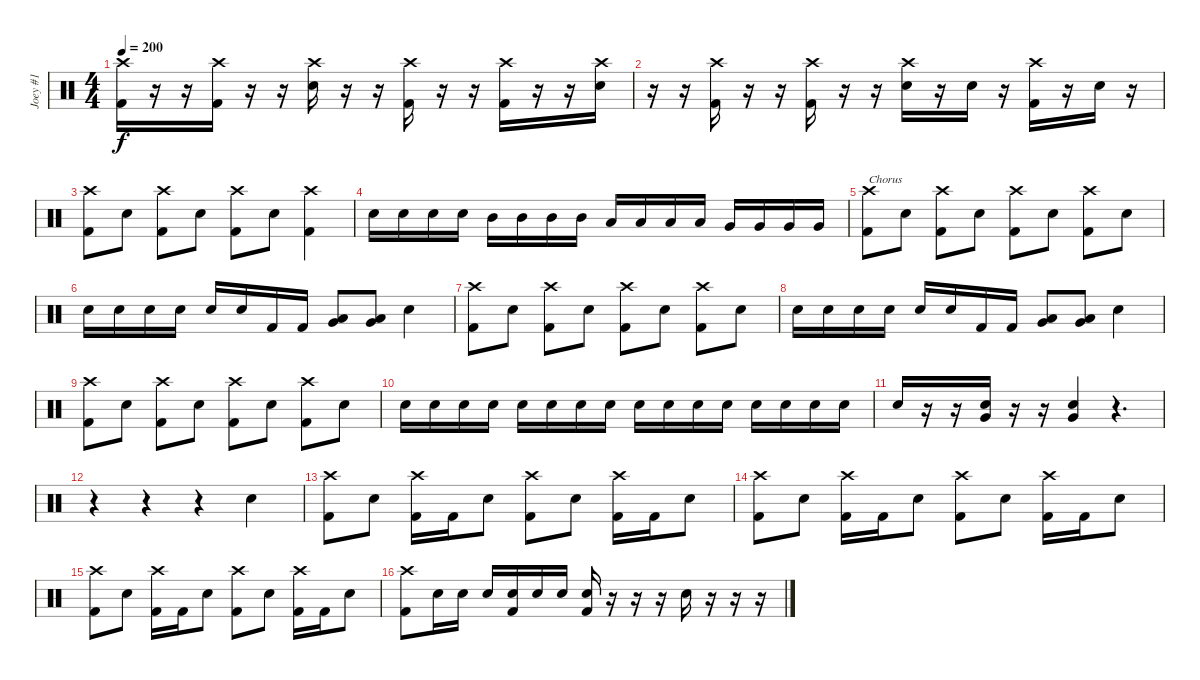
\track ("Joey #1" "Joey #1") {instrument percussion}
\staff {score}
\articulation defaults
\ts (4 4)
\tempo 200
\clef neutral
\ks c
("Crash high (hit)" "Kick (hit) 2").16{dy f} r.16 r.16 ("Crash high (hit)" "Kick (hit) 2").16 r.16 r.16 ("Crash high (hit)" "Electric Snare (hit)").16 r.16 r.16 ("Crash high (hit)" "Kick (hit) 2").16 r.16 r.16 ("Crash high (hit)" "Kick (hit) 2").16 r.16 r.16 ("Crash high (hit)" "Electric Snare (hit)").16 |
r.16 r.16 ("Crash high (hit)" "Kick (hit) 2").16 r.16 r.16 ("Crash high (hit)" "Kick (hit) 2").16 r.16 r.16 ("Crash high (hit)" "Electric Snare (hit)").16 r.16 "Electric Snare (hit)".16 r.16 ("Crash high (hit)" "Kick (hit) 2").16 r.16 "Electric Snare (hit)".16 r.16 |
("Crash high (hit)" "Kick (hit) 2").8 "Electric Snare (hit)".8 ("Crash high (hit)" "Kick (hit) 2").8 "Electric Snare (hit)".8 ("Crash high (hit)" "Kick (hit) 2").8 "Electric Snare (hit)".8 ("Crash high (hit)" "Kick (hit) 2").4 |
"Electric Snare (hit)".16 "Electric Snare (hit)".16 "Electric Snare (hit)".16 "Electric Snare (hit)".16 "Mid Tom (hit)".16 "Mid Tom (hit)".16 "Mid Tom (hit)".16 "Mid Tom (hit)".16 "Low Tom (hit)".16 "Low Tom (hit)".16 "Low Tom (hit)".16 "Low Tom (hit)".16 "Very Low Tom (hit)".16 "Very Low Tom (hit)".16 "Very Low Tom (hit)".16 "Very Low Tom (hit)".16 |
("Crash high (hit)" "Kick (hit) 2").8{txt "Chorus"} "Electric Snare (hit)".8 ("Crash high (hit)" "Kick (hit) 2").8 "Electric Snare (hit)".8 ("Crash high (hit)" "Kick (hit) 2").8 "Electric Snare (hit)".8 ("Crash high (hit)" "Kick (hit) 2").8 "Electric Snare (hit)".8 |
"Electric Snare (hit)".16 "Electric Snare (hit)".16 "Electric Snare (hit)".16 "Electric Snare (hit)".16 "Electric Snare (hit)".16 "Electric Snare (hit)".16 "Kick (hit) 2".16 "Kick (hit) 2".16 ("Low Tom (hit)" "Very Low Tom (hit)").8 ("Low Tom (hit)" "Very Low Tom (hit)").8 "Electric Snare (hit)".4 |
("Crash high (hit)" "Kick (hit) 2").8 "Electric Snare (hit)".8 ("Crash high (hit)" "Kick (hit) 2").8 "Electric Snare (hit)".8 ("Crash high (hit)" "Kick (hit) 2").8 "Electric Snare (hit)".8 ("Crash high (hit)" "Kick (hit) 2").8 "Electric Snare (hit)".8 |
"Electric Snare (hit)".16 "Electric Snare (hit)".16 "Electric Snare (hit)".16 "Electric Snare (hit)".16 "Electric Snare (hit)".16 "Electric Snare (hit)".16 "Kick (hit) 2".16 "Kick (hit) 2".16 ("Low Tom (hit)" "Very Low Tom (hit)").8 ("Low Tom (hit)" "Very Low Tom (hit)").8 "Electric Snare (hit)".4 |
("Crash high (hit)" "Kick (hit) 2").8 "Electric Snare (hit)".8 ("Crash high (hit)" "Kick (hit) 2").8 "Electric Snare (hit)".8 ("Crash high (hit)" "Kick (hit) 2").8 "Electric Snare (hit)".8 ("Crash high (hit)" "Kick (hit) 2").8 "Electric Snare (hit)".8 |
"Electric Snare (hit)".16 "Electric Snare (hit)".16 "Electric Snare (hit)".16 "Electric Snare (hit)".16 "Electric Snare (hit)".16 "Electric Snare (hit)".16 "Electric Snare (hit)".16 "Electric Snare (hit)".16 "Electric Snare (hit)".16 "Electric Snare (hit)".16 "Electric Snare (hit)".16 "Electric Snare (hit)".16 "Electric Snare (hit)".16 "Electric Snare (hit)".16 "Electric Snare (hit)".16 "Electric Snare (hit)".16 |
"Electric Snare (hit)".16 r.16 r.16 ("Electric Snare (hit)" "Very Low Tom (hit)").16 r.16 r.16 ("Electric Snare (hit)" "Very Low Tom (hit)").4 r.4{d} |
r.4 r.4 r.4 "Electric Snare (hit)".4 |
("Crash high (hit)" "Kick (hit) 2").8 "Electric Snare (hit)".8 ("Crash high (hit)" "Kick (hit) 2").16 "Kick (hit) 2".16 "Electric Snare (hit)".8 ("Crash high (hit)" "Kick (hit) 2").8 "Electric Snare (hit)".8 ("Crash high (hit)" "Kick (hit) 2").16 "Kick (hit) 2".16 "Electric Snare (hit)".8 |
("Crash high (hit)" "Kick (hit) 2").8 "Electric Snare (hit)".8 ("Crash high (hit)" "Kick (hit) 2").16 "Kick (hit) 2".16 "Electric Snare (hit)".8 ("Crash high (hit)" "Kick (hit) 2").8 "Electric Snare (hit)".8 ("Crash high (hit)" "Kick (hit) 2").16 "Kick (hit) 2".16 "Electric Snare (hit)".8 |
("Crash high (hit)" "Kick (hit) 2").8 "Electric Snare (hit)".8 ("Crash high (hit)" "Kick (hit) 2").16 "Kick (hit) 2".16 "Electric Snare (hit)".8 ("Crash high (hit)" "Kick (hit) 2").8 "Electric Snare (hit)".8 ("Crash high (hit)" "Kick (hit) 2").16 "Kick (hit) 2".16 "Electric Snare (hit)".8 |
("Crash high (hit)" "Kick (hit) 2").8 "Electric Snare (hit)".16 "Electric Snare (hit)".16 "Electric Snare (hit)".16 ("Electric Snare (hit)" "Kick (hit) 2").16 "Electric Snare (hit)".16 "Electric Snare (hit)".16 ("Electric Snare (hit)" "Kick (hit) 2").16 r.16 r.16 r.16 "Electric Snare (hit)".16 r.16 r.16 r.16
